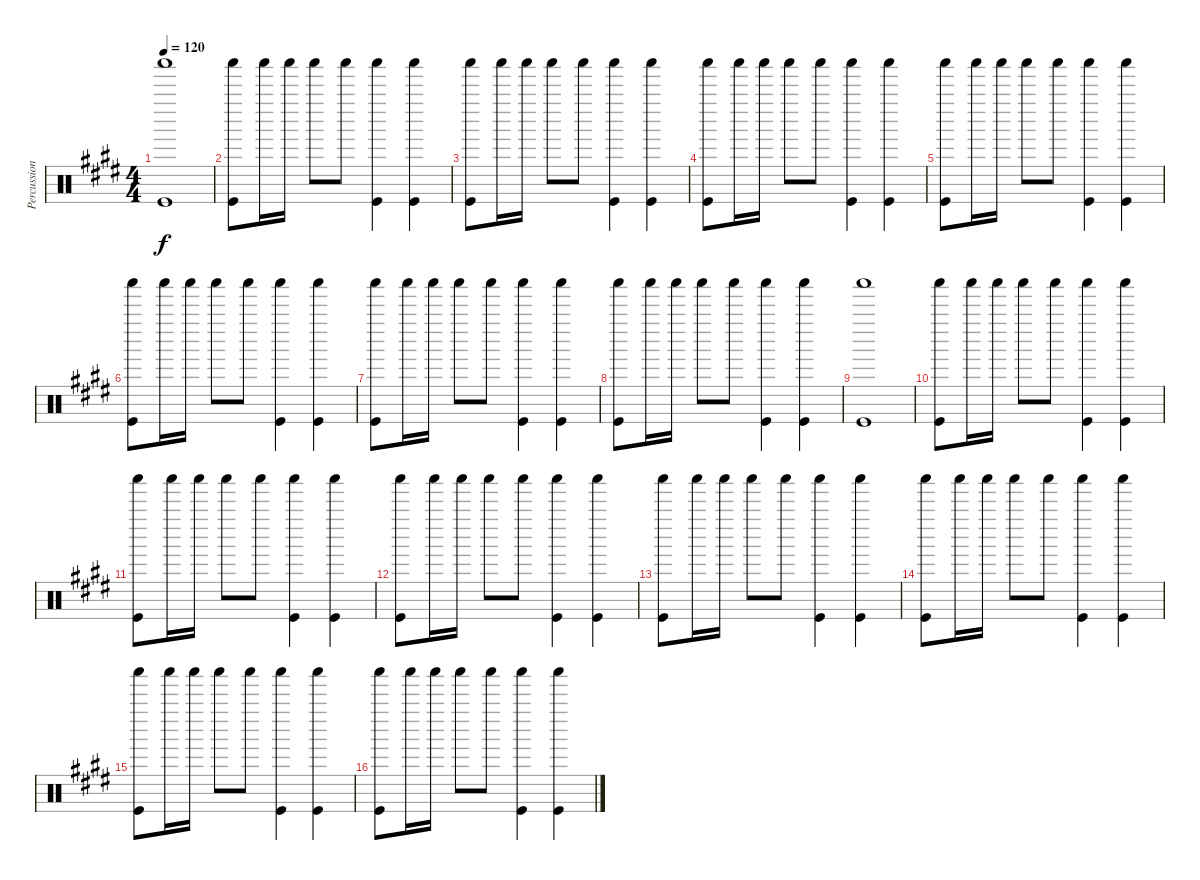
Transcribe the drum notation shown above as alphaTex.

\track ("Percussions" "Percussion") {instrument percussion}
\staff {score}
\articulation defaults
\ts (4 4)
\tempo 120
\clef neutral
\ks e
("Shaker (hit)" "Kick (hit)").1{dy f} |
("Shaker (hit)" "Kick (hit)").8 "Shaker (hit)".16 "Shaker (hit)".16 "Shaker (hit)".8 "Shaker (hit)".8 ("Shaker (hit)" "Kick (hit)").4 ("Shaker (hit)" "Kick (hit)").4 |
("Shaker (hit)" "Kick (hit)").8 "Shaker (hit)".16 "Shaker (hit)".16 "Shaker (hit)".8 "Shaker (hit)".8 ("Shaker (hit)" "Kick (hit)").4 ("Shaker (hit)" "Kick (hit)").4 |
("Shaker (hit)" "Kick (hit)").8 "Shaker (hit)".16 "Shaker (hit)".16 "Shaker (hit)".8 "Shaker (hit)".8 ("Shaker (hit)" "Kick (hit)").4 ("Shaker (hit)" "Kick (hit)").4 |
("Shaker (hit)" "Kick (hit)").8 "Shaker (hit)".16 "Shaker (hit)".16 "Shaker (hit)".8 "Shaker (hit)".8 ("Shaker (hit)" "Kick (hit)").4 ("Shaker (hit)" "Kick (hit)").4 |
("Shaker (hit)" "Kick (hit)").8 "Shaker (hit)".16 "Shaker (hit)".16 "Shaker (hit)".8 "Shaker (hit)".8 ("Shaker (hit)" "Kick (hit)").4 ("Shaker (hit)" "Kick (hit)").4 |
("Shaker (hit)" "Kick (hit)").8 "Shaker (hit)".16 "Shaker (hit)".16 "Shaker (hit)".8 "Shaker (hit)".8 ("Shaker (hit)" "Kick (hit)").4 ("Shaker (hit)" "Kick (hit)").4 |
("Shaker (hit)" "Kick (hit)").8 "Shaker (hit)".16 "Shaker (hit)".16 "Shaker (hit)".8 "Shaker (hit)".8 ("Shaker (hit)" "Kick (hit)").4 ("Shaker (hit)" "Kick (hit)").4 |
("Shaker (hit)" "Kick (hit)").1 |
("Shaker (hit)" "Kick (hit)").8 "Shaker (hit)".16 "Shaker (hit)".16 "Shaker (hit)".8 "Shaker (hit)".8 ("Shaker (hit)" "Kick (hit)").4 ("Shaker (hit)" "Kick (hit)").4 |
("Shaker (hit)" "Kick (hit)").8 "Shaker (hit)".16 "Shaker (hit)".16 "Shaker (hit)".8 "Shaker (hit)".8 ("Shaker (hit)" "Kick (hit)").4 ("Shaker (hit)" "Kick (hit)").4 |
("Shaker (hit)" "Kick (hit)").8 "Shaker (hit)".16 "Shaker (hit)".16 "Shaker (hit)".8 "Shaker (hit)".8 ("Shaker (hit)" "Kick (hit)").4 ("Shaker (hit)" "Kick (hit)").4 |
("Shaker (hit)" "Kick (hit)").8 "Shaker (hit)".16 "Shaker (hit)".16 "Shaker (hit)".8 "Shaker (hit)".8 ("Shaker (hit)" "Kick (hit)").4 ("Shaker (hit)" "Kick (hit)").4 |
("Shaker (hit)" "Kick (hit)").8 "Shaker (hit)".16 "Shaker (hit)".16 "Shaker (hit)".8 "Shaker (hit)".8 ("Shaker (hit)" "Kick (hit)").4 ("Shaker (hit)" "Kick (hit)").4 |
("Shaker (hit)" "Kick (hit)").8 "Shaker (hit)".16 "Shaker (hit)".16 "Shaker (hit)".8 "Shaker (hit)".8 ("Shaker (hit)" "Kick (hit)").4 ("Shaker (hit)" "Kick (hit)").4 |
("Shaker (hit)" "Kick (hit)").8 "Shaker (hit)".16 "Shaker (hit)".16 "Shaker (hit)".8 "Shaker (hit)".8 ("Shaker (hit)" "Kick (hit)").4 ("Shaker (hit)" "Kick (hit)").4
